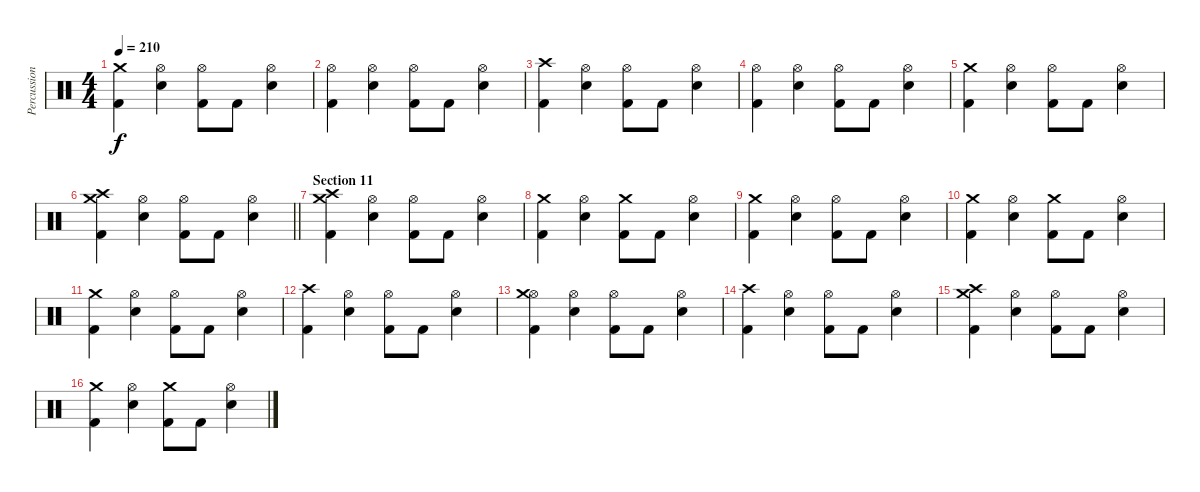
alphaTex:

\track ("Percussion" "Percussion") {instrument percussion}
\staff {score}
\articulation defaults
\ts (4 4)
\tempo 210
\clef neutral
\ks c
("Kick (hit) 2" "Crash medium (hit)").4{dy f} ("Electric Snare (hit)" "Hi-Hat (open)").4 ("Kick (hit) 2" "Hi-Hat (open)").8 "Kick (hit) 2".8 ("Electric Snare (hit)" "Hi-Hat (open)").4 |
("Kick (hit) 2" "Hi-Hat (open)").4 ("Electric Snare (hit)" "Hi-Hat (open)").4 ("Kick (hit) 2" "Hi-Hat (open)").8 "Kick (hit) 2".8 ("Electric Snare (hit)" "Hi-Hat (open)").4 |
("Kick (hit) 2" "Crash high (hit)").4 ("Electric Snare (hit)" "Hi-Hat (open)").4 ("Kick (hit) 2" "Hi-Hat (open)").8 "Kick (hit) 2".8 ("Electric Snare (hit)" "Hi-Hat (open)").4 |
("Kick (hit) 2" "Hi-Hat (open)").4 ("Electric Snare (hit)" "Hi-Hat (open)").4 ("Kick (hit) 2" "Hi-Hat (open)").8 "Kick (hit) 2".8 ("Electric Snare (hit)" "Hi-Hat (open)").4 |
("Kick (hit) 2" "Crash medium (hit)").4 ("Electric Snare (hit)" "Hi-Hat (open)").4 ("Kick (hit) 2" "Hi-Hat (open)").8 "Kick (hit) 2".8 ("Electric Snare (hit)" "Hi-Hat (open)").4 |
\barLineRight lightlight
("Kick (hit) 2" "Crash medium (hit)" "Crash high (hit)").4 ("Electric Snare (hit)" "Hi-Hat (open)").4 ("Kick (hit) 2" "Hi-Hat (open)").8 "Kick (hit) 2".8 ("Electric Snare (hit)" "Hi-Hat (open)").4 |
\section ("" "Section 11")
("Kick (hit) 2" "Crash high (hit)" "Crash medium (hit)").4 ("Electric Snare (hit)" "Hi-Hat (open)").4 ("Kick (hit) 2" "Hi-Hat (open)").8 "Kick (hit) 2".8 ("Electric Snare (hit)" "Hi-Hat (open)").4 |
("Kick (hit) 2" "Crash medium (hit)").4 ("Electric Snare (hit)" "Hi-Hat (open)").4 ("Kick (hit) 2" "Crash medium (hit)").8 "Kick (hit) 2".8 ("Electric Snare (hit)" "Hi-Hat (open)").4 |
("Kick (hit) 2" "Crash medium (hit)").4 ("Electric Snare (hit)" "Hi-Hat (open)").4 ("Kick (hit) 2" "Hi-Hat (open)").8 "Kick (hit) 2".8 ("Electric Snare (hit)" "Hi-Hat (open)").4 |
("Kick (hit) 2" "Crash medium (hit)").4 ("Electric Snare (hit)" "Hi-Hat (open)").4 ("Kick (hit) 2" "Crash medium (hit)").8 "Kick (hit) 2".8 ("Electric Snare (hit)" "Hi-Hat (open)").4 |
("Kick (hit) 2" "Crash medium (hit)").4 ("Electric Snare (hit)" "Hi-Hat (open)").4 ("Kick (hit) 2" "Hi-Hat (open)").8 "Kick (hit) 2".8 ("Electric Snare (hit)" "Hi-Hat (open)").4 |
("Kick (hit) 2" "Crash high (hit)").4 ("Electric Snare (hit)" "Hi-Hat (open)").4 ("Kick (hit) 2" "Hi-Hat (open)").8 "Kick (hit) 2".8 ("Electric Snare (hit)" "Hi-Hat (open)").4 |
("Kick (hit) 2" "Hi-Hat (open)" "Crash medium (hit)").4 ("Electric Snare (hit)" "Hi-Hat (open)").4 ("Kick (hit) 2" "Hi-Hat (open)").8 "Kick (hit) 2".8 ("Electric Snare (hit)" "Hi-Hat (open)").4 |
("Kick (hit) 2" "Crash high (hit)").4 ("Electric Snare (hit)" "Hi-Hat (open)").4 ("Kick (hit) 2" "Hi-Hat (open)").8 "Kick (hit) 2".8 ("Electric Snare (hit)" "Hi-Hat (open)").4 |
("Kick (hit) 2" "Crash high (hit)" "Crash medium (hit)").4 ("Electric Snare (hit)" "Hi-Hat (open)").4 ("Kick (hit) 2" "Hi-Hat (open)").8 "Kick (hit) 2".8 ("Electric Snare (hit)" "Hi-Hat (open)").4 |
("Kick (hit) 2" "Crash medium (hit)").4 ("Electric Snare (hit)" "Hi-Hat (open)").4 ("Kick (hit) 2" "Crash medium (hit)").8 "Kick (hit) 2".8 ("Electric Snare (hit)" "Hi-Hat (open)").4
